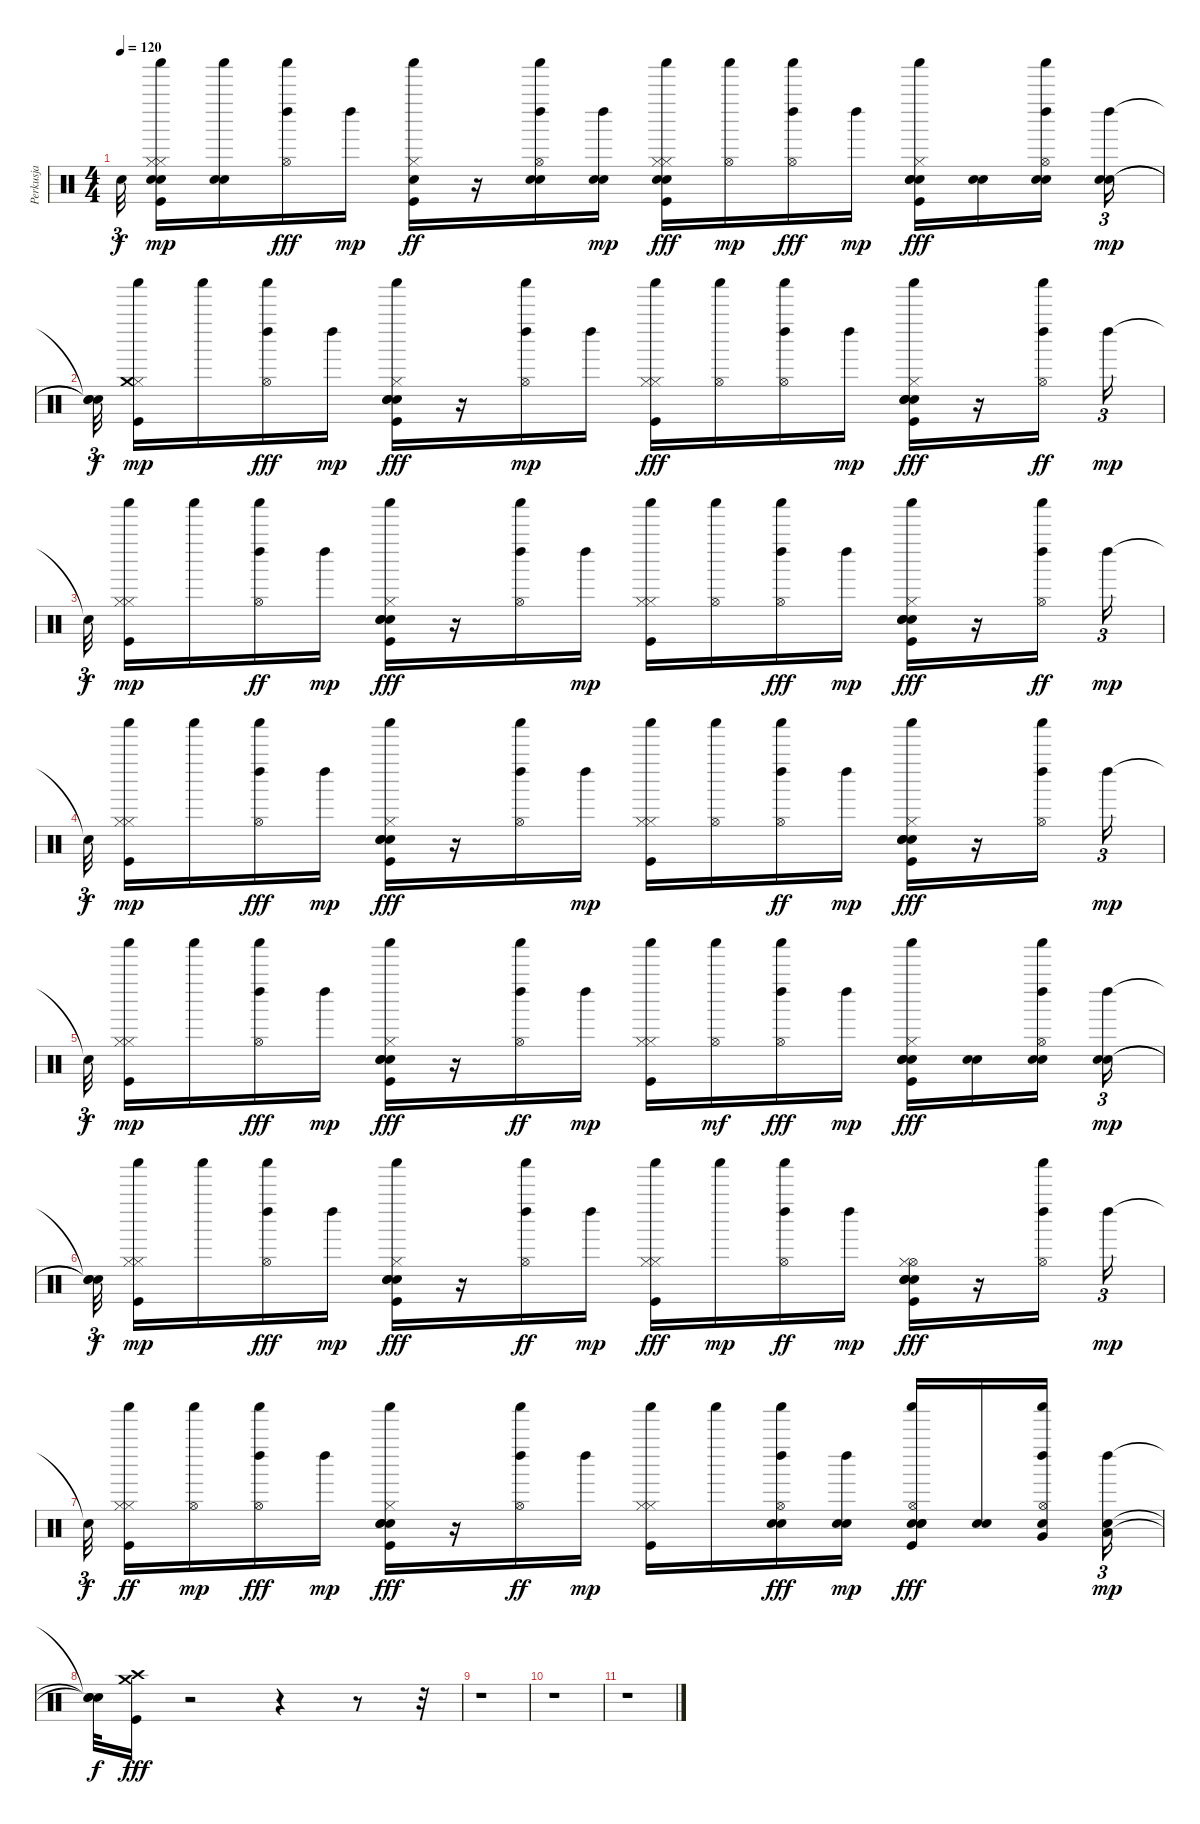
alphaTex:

\track ("Perkusja" "Perkusja") {instrument percussion}
\staff {score}
\articulation defaults
\ts (4 4)
\tempo 120
\clef neutral
\ks c "Snare (hit)"{t}.32{tu (3 2) dy f}
("Hi-Hat (closed)" "Kick (hit)" "Snare (hit) 2" "Electric Snare (hit)" "Hi-Hat (closed)" "Shaker (hit)").16{dy mp} ("Snare (hit) 2" "Electric Snare (hit)" "Shaker (hit)").16 ("Hi-Hat (open)" "Left Maraca (hit)" "Shaker (hit)").16{dy fff} "Left Maraca (hit)".16{dy mp} ("Kick (hit)" "Hand Clap (hit)" "Hi-Hat (closed)" "Shaker (hit)").16{dy ff} r.16 ("Snare (hit) 2" "Electric Snare (hit)" "Hi-Hat (open)" "Left Maraca (hit)" "Shaker (hit)").16 ("Snare (hit) 2" "Electric Snare (hit)" "Left Maraca (hit)").16{dy mp} ("Hi-Hat (closed)" "Kick (hit)" "Snare (hit) 2" "Electric Snare (hit)" "Shaker (hit)" "Hi-Hat (closed)").16{dy fff} ("Hi-Hat (open)" "Shaker (hit)").16{dy mp} ("Hi-Hat (open)" "Left Maraca (hit)" "Shaker (hit)").16{dy fff} "Left Maraca (hit)".16{dy mp} ("Kick (hit)" "Snare (hit) 2" "Electric Snare (hit)" "Hi-Hat (closed)" "Shaker (hit)" "Hand Clap (hit)").16{dy fff} ("Snare (hit) 2" "Electric Snare (hit)").16 ("Snare (hit) 2" "Electric Snare (hit)" "Hi-Hat (open)" "Left Maraca (hit)" "Shaker (hit)").16 ("Snare (hit) 2" "Electric Snare (hit)" "Left Maraca (hit)").16{tu (3 2) dy mp} |
("Snare (hit)"{t} "Snare (hit)"{t} "Snare (hit)"{t}).32{tu (3 2) dy f} ("Hi-Hat (closed)" "Kick (hit)" "Crash medium (hit)" "Shaker (hit)").16{dy mp} "Shaker (hit)".16 ("Hi-Hat (open)" "Left Maraca (hit)" "Shaker (hit)").16{dy fff} "Left Maraca (hit)".16{dy mp} ("Kick (hit)" "Snare (hit) 2" "Electric Snare (hit)" "Hi-Hat (closed)" "Shaker (hit)" "Hand Clap (hit)").16{dy fff} r.16 ("Hi-Hat (open)" "Left Maraca (hit)" "Shaker (hit)").16{dy mp} "Left Maraca (hit)".16 ("Hi-Hat (closed)" "Kick (hit)" "Shaker (hit)" "Hi-Hat (closed)").16{dy fff} ("Shaker (hit)" "Hi-Hat (open)").16 ("Left Maraca (hit)" "Shaker (hit)" "Hi-Hat (open)").16 "Left Maraca (hit)".16{dy mp} ("Kick (hit)" "Snare (hit) 2" "Hand Clap (hit)" "Electric Snare (hit)" "Shaker (hit)" "Hi-Hat (closed)").16{dy fff} r.16 ("Hi-Hat (open)" "Left Maraca (hit)" "Shaker (hit)").16{dy ff} "Left Maraca (hit)".16{tu (3 2) dy mp} |
"Snare (hit)"{t}.32{tu (3 2) dy f} ("Hi-Hat (closed)" "Kick (hit)" "Hi-Hat (closed)" "Shaker (hit)").16{dy mp} "Shaker (hit)".16 ("Hi-Hat (open)" "Left Maraca (hit)" "Shaker (hit)").16{dy ff} "Left Maraca (hit)".16{dy mp} ("Kick (hit)" "Snare (hit) 2" "Electric Snare (hit)" "Hi-Hat (closed)" "Shaker (hit)" "Hand Clap (hit)").16{dy fff} r.16 ("Hi-Hat (open)" "Left Maraca (hit)" "Shaker (hit)").16 "Left Maraca (hit)".16{dy mp} ("Hi-Hat (closed)" "Kick (hit)" "Hi-Hat (closed)" "Shaker (hit)").16 ("Hi-Hat (open)" "Shaker (hit)").16 ("Hi-Hat (open)" "Left Maraca (hit)" "Shaker (hit)").16{dy fff} "Left Maraca (hit)".16{dy mp} ("Kick (hit)" "Snare (hit) 2" "Hand Clap (hit)" "Electric Snare (hit)" "Hi-Hat (closed)" "Shaker (hit)").16{dy fff} r.16 ("Hi-Hat (open)" "Left Maraca (hit)" "Shaker (hit)").16{dy ff} "Left Maraca (hit)".16{tu (3 2) dy mp} |
"Snare (hit)"{t}.32{tu (3 2) dy f} ("Hi-Hat (closed)" "Kick (hit)" "Hi-Hat (closed)" "Shaker (hit)").16{dy mp} "Shaker (hit)".16 ("Hi-Hat (open)" "Left Maraca (hit)" "Shaker (hit)").16{dy fff} "Left Maraca (hit)".16{dy mp} ("Snare (hit) 2" "Electric Snare (hit)" "Kick (hit)" "Hand Clap (hit)" "Hi-Hat (closed)" "Shaker (hit)").16{dy fff} r.16 ("Hi-Hat (open)" "Left Maraca (hit)" "Shaker (hit)").16 "Left Maraca (hit)".16{dy mp} ("Hi-Hat (closed)" "Kick (hit)" "Hi-Hat (closed)" "Shaker (hit)").16 ("Hi-Hat (open)" "Shaker (hit)").16 ("Hi-Hat (open)" "Left Maraca (hit)" "Shaker (hit)").16{dy ff} "Left Maraca (hit)".16{dy mp} ("Kick (hit)" "Snare (hit) 2" "Hand Clap (hit)" "Electric Snare (hit)" "Hi-Hat (closed)" "Shaker (hit)").16{dy fff} r.16 ("Hi-Hat (open)" "Left Maraca (hit)" "Shaker (hit)").16 "Left Maraca (hit)".16{tu (3 2) dy mp} |
"Snare (hit)"{t}.32{tu (3 2) dy f} ("Hi-Hat (closed)" "Kick (hit)" "Hi-Hat (closed)" "Shaker (hit)").16{dy mp} "Shaker (hit)".16 ("Hi-Hat (open)" "Left Maraca (hit)" "Shaker (hit)").16{dy fff} "Left Maraca (hit)".16{dy mp} ("Kick (hit)" "Snare (hit) 2" "Hand Clap (hit)" "Electric Snare (hit)" "Hi-Hat (closed)" "Shaker (hit)").16{dy fff} r.16 ("Hi-Hat (open)" "Left Maraca (hit)" "Shaker (hit)").16{dy ff} "Left Maraca (hit)".16{dy mp} ("Hi-Hat (closed)" "Kick (hit)" "Hi-Hat (closed)" "Shaker (hit)").16 ("Shaker (hit)" "Hi-Hat (open)").16{dy mf} ("Hi-Hat (open)" "Left Maraca (hit)" "Shaker (hit)").16{dy fff} "Left Maraca (hit)".16{dy mp} ("Kick (hit)" "Snare (hit) 2" "Electric Snare (hit)" "Hi-Hat (closed)" "Shaker (hit)" "Hand Clap (hit)").16{dy fff} ("Snare (hit) 2" "Electric Snare (hit)").16 ("Snare (hit) 2" "Electric Snare (hit)" "Hi-Hat (open)" "Left Maraca (hit)" "Shaker (hit)").16 ("Snare (hit) 2" "Electric Snare (hit)" "Left Maraca (hit)").16{tu (3 2) dy mp} |
("Snare (hit)"{t} "Snare (hit)"{t} "Snare (hit)"{t}).32{tu (3 2) dy f} ("Hi-Hat (closed)" "Kick (hit)" "Hi-Hat (closed)" "Shaker (hit)").16{dy mp} "Shaker (hit)".16 ("Hi-Hat (open)" "Left Maraca (hit)" "Shaker (hit)").16{dy fff} "Left Maraca (hit)".16{dy mp} ("Snare (hit) 2" "Electric Snare (hit)" "Kick (hit)" "Hand Clap (hit)" "Hi-Hat (closed)" "Shaker (hit)").16{dy fff} r.16 ("Hi-Hat (open)" "Left Maraca (hit)" "Shaker (hit)").16{dy ff} "Left Maraca (hit)".16{dy mp} ("Hi-Hat (closed)" "Kick (hit)" "Shaker (hit)" "Hi-Hat (closed)").16{dy fff} "Shaker (hit)".16{dy mp} ("Hi-Hat (open)" "Left Maraca (hit)" "Shaker (hit)").16{dy ff} "Left Maraca (hit)".16{dy mp} ("Hi-Hat (open)" "Kick (hit)" "Snare (hit) 2" "Hand Clap (hit)" "Electric Snare (hit)" "Hi-Hat (closed)").16{dy fff} r.16 ("Hi-Hat (open)" "Left Maraca (hit)" "Shaker (hit)").16 "Left Maraca (hit)".16{tu (3 2) dy mp} |
"Snare (hit)"{t}.32{tu (3 2) dy f} ("Hi-Hat (closed)" "Kick (hit)" "Shaker (hit)" "Hi-Hat (closed)").16{dy ff} ("Hi-Hat (open)" "Shaker (hit)").16{dy mp} ("Hi-Hat (open)" "Left Maraca (hit)" "Shaker (hit)").16{dy fff} "Left Maraca (hit)".16{dy mp} ("Kick (hit)" "Snare (hit) 2" "Hand Clap (hit)" "Electric Snare (hit)" "Shaker (hit)" "Hi-Hat (closed)").16{dy fff} r.16 ("Hi-Hat (open)" "Left Maraca (hit)" "Shaker (hit)").16{dy ff} "Left Maraca (hit)".16{dy mp} ("Hi-Hat (closed)" "Kick (hit)" "Hi-Hat (closed)" "Shaker (hit)").16 "Shaker (hit)".16 ("Snare (hit) 2" "Electric Snare (hit)" "Hi-Hat (open)" "Left Maraca (hit)" "Shaker (hit)").16{dy fff} ("Snare (hit) 2" "Electric Snare (hit)" "Left Maraca (hit)").16{dy mp} ("Kick (hit)" "Snare (hit) 2" "Electric Snare (hit)" "Hi-Hat (open)" "Shaker (hit)" "Hand Clap (hit)").16{dy fff} ("Snare (hit) 2" "Electric Snare (hit)").16 ("Electric Snare (hit)" "Very Low Tom (hit)" "Hi-Hat (open)" "Left Maraca (hit)" "Shaker (hit)").16 ("Electric Snare (hit)" "Low Floor Tom (hit)" "Left Maraca (hit)").16{tu (3 2) dy mp} |
("Snare (hit)"{t} "Snare (hit)"{t} "Snare (hit)"{t}).32{dy f} ("Kick (hit)" "Crash high (hit)" "Crash medium (hit)").16{dy fff} r.2 r.4 r.8 r.32 |
r.1 |
r.1 |
r.1
